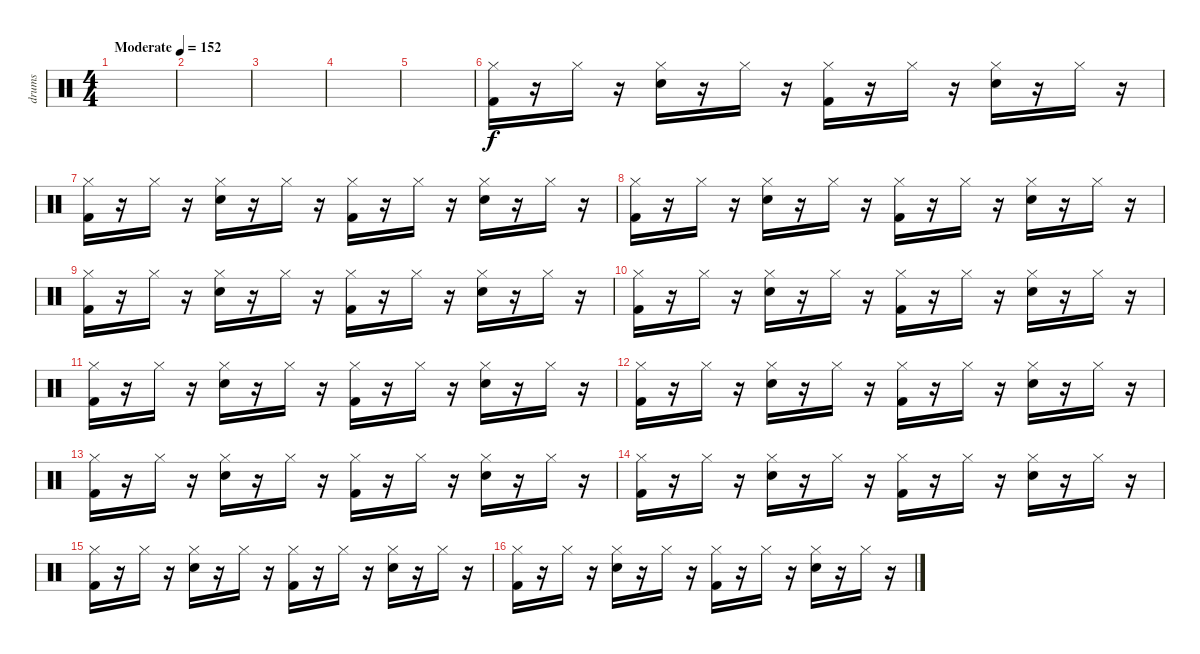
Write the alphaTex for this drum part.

\track ("drums" "drums") {instrument percussion}
\staff {score}
\articulation defaults
\ts (4 4)
\tempo (152 "Moderate")
\clef neutral
\ks c
|
|
|
|
|
("Hi-Hat (closed)" "Kick (hit) 2").16 r.16 "Hi-Hat (closed)".16 r.16 ("Hi-Hat (closed)" "Electric Snare (hit)").16 r.16 "Hi-Hat (closed)".16 r.16 ("Hi-Hat (closed)" "Kick (hit) 2").16 r.16 "Hi-Hat (closed)".16 r.16 ("Hi-Hat (closed)" "Electric Snare (hit)").16 r.16 "Hi-Hat (closed)".16 r.16 |
("Hi-Hat (closed)" "Kick (hit) 2").16 r.16 "Hi-Hat (closed)".16 r.16 ("Hi-Hat (closed)" "Electric Snare (hit)").16 r.16 "Hi-Hat (closed)".16 r.16 ("Hi-Hat (closed)" "Kick (hit) 2").16 r.16 "Hi-Hat (closed)".16 r.16 ("Hi-Hat (closed)" "Electric Snare (hit)").16 r.16 "Hi-Hat (closed)".16 r.16 |
("Hi-Hat (closed)" "Kick (hit) 2").16 r.16 "Hi-Hat (closed)".16 r.16 ("Hi-Hat (closed)" "Electric Snare (hit)").16 r.16 "Hi-Hat (closed)".16 r.16 ("Hi-Hat (closed)" "Kick (hit) 2").16 r.16 "Hi-Hat (closed)".16 r.16 ("Hi-Hat (closed)" "Electric Snare (hit)").16 r.16 "Hi-Hat (closed)".16 r.16 |
("Hi-Hat (closed)" "Kick (hit) 2").16 r.16 "Hi-Hat (closed)".16 r.16 ("Hi-Hat (closed)" "Electric Snare (hit)").16 r.16 "Hi-Hat (closed)".16 r.16 ("Hi-Hat (closed)" "Kick (hit) 2").16 r.16 "Hi-Hat (closed)".16 r.16 ("Hi-Hat (closed)" "Electric Snare (hit)").16 r.16 "Hi-Hat (closed)".16 r.16 |
("Hi-Hat (closed)" "Kick (hit) 2").16 r.16 "Hi-Hat (closed)".16 r.16 ("Hi-Hat (closed)" "Electric Snare (hit)").16 r.16 "Hi-Hat (closed)".16 r.16 ("Hi-Hat (closed)" "Kick (hit) 2").16 r.16 "Hi-Hat (closed)".16 r.16 ("Hi-Hat (closed)" "Electric Snare (hit)").16 r.16 "Hi-Hat (closed)".16 r.16 |
("Hi-Hat (closed)" "Kick (hit) 2").16 r.16 "Hi-Hat (closed)".16 r.16 ("Hi-Hat (closed)" "Electric Snare (hit)").16 r.16 "Hi-Hat (closed)".16 r.16 ("Hi-Hat (closed)" "Kick (hit) 2").16 r.16 "Hi-Hat (closed)".16 r.16 ("Hi-Hat (closed)" "Electric Snare (hit)").16 r.16 "Hi-Hat (closed)".16 r.16 |
("Hi-Hat (closed)" "Kick (hit) 2").16 r.16 "Hi-Hat (closed)".16 r.16 ("Hi-Hat (closed)" "Electric Snare (hit)").16 r.16 "Hi-Hat (closed)".16 r.16 ("Hi-Hat (closed)" "Kick (hit) 2").16 r.16 "Hi-Hat (closed)".16 r.16 ("Hi-Hat (closed)" "Electric Snare (hit)").16 r.16 "Hi-Hat (closed)".16 r.16 |
("Hi-Hat (closed)" "Kick (hit) 2").16 r.16 "Hi-Hat (closed)".16 r.16 ("Hi-Hat (closed)" "Electric Snare (hit)").16 r.16 "Hi-Hat (closed)".16 r.16 ("Hi-Hat (closed)" "Kick (hit) 2").16 r.16 "Hi-Hat (closed)".16 r.16 ("Hi-Hat (closed)" "Electric Snare (hit)").16 r.16 "Hi-Hat (closed)".16 r.16 |
("Hi-Hat (closed)" "Kick (hit) 2").16 r.16 "Hi-Hat (closed)".16 r.16 ("Hi-Hat (closed)" "Electric Snare (hit)").16 r.16 "Hi-Hat (closed)".16 r.16 ("Hi-Hat (closed)" "Kick (hit) 2").16 r.16 "Hi-Hat (closed)".16 r.16 ("Hi-Hat (closed)" "Electric Snare (hit)").16 r.16 "Hi-Hat (closed)".16 r.16 |
("Hi-Hat (closed)" "Kick (hit) 2").16 r.16 "Hi-Hat (closed)".16 r.16 ("Hi-Hat (closed)" "Electric Snare (hit)").16 r.16 "Hi-Hat (closed)".16 r.16 ("Hi-Hat (closed)" "Kick (hit) 2").16 r.16 "Hi-Hat (closed)".16 r.16 ("Hi-Hat (closed)" "Electric Snare (hit)").16 r.16 "Hi-Hat (closed)".16 r.16 |
("Hi-Hat (closed)" "Kick (hit) 2").16 r.16 "Hi-Hat (closed)".16 r.16 ("Hi-Hat (closed)" "Electric Snare (hit)").16 r.16 "Hi-Hat (closed)".16 r.16 ("Hi-Hat (closed)" "Kick (hit) 2").16 r.16 "Hi-Hat (closed)".16 r.16 ("Hi-Hat (closed)" "Electric Snare (hit)").16 r.16 "Hi-Hat (closed)".16 r.16
